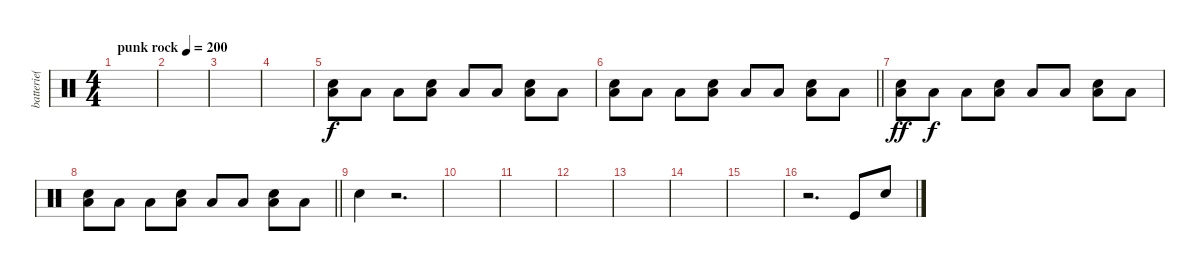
\track ("batterie( Guillaume ) " "batterie( ") {instrument percussion}
\staff {score}
\articulation defaults
\ts (4 4)
\tempo (200 "punk rock")
\clef neutral
\ks c
|
|
|
|
("Snare (hit) 2" "Low Floor Tom (hit)").8 "Low Floor Tom (hit)".8{dy f} "Low Floor Tom (hit)".8 ("Snare (hit) 2" "Low Floor Tom (hit)").8 "Low Floor Tom (hit)".8 "Low Floor Tom (hit)".8 ("Snare (hit) 2" "Low Floor Tom (hit)").8 "Low Floor Tom (hit)".8 |
\barLineRight lightlight
("Snare (hit) 2" "Low Floor Tom (hit)").8 "Low Floor Tom (hit)".8 "Low Floor Tom (hit)".8 ("Snare (hit) 2" "Low Floor Tom (hit)").8 "Low Floor Tom (hit)".8 "Low Floor Tom (hit)".8 ("Snare (hit) 2" "Low Floor Tom (hit)").8 "Low Floor Tom (hit)".8 |
("Snare (hit) 2" "Low Floor Tom (hit)").8{dy ff} "Low Floor Tom (hit)".8{dy f} "Low Floor Tom (hit)".8 ("Snare (hit) 2" "Low Floor Tom (hit)").8 "Low Floor Tom (hit)".8 "Low Floor Tom (hit)".8 ("Snare (hit) 2" "Low Floor Tom (hit)").8 "Low Floor Tom (hit)".8 |
\barLineRight lightlight
("Snare (hit) 2" "Low Floor Tom (hit)").8 "Low Floor Tom (hit)".8 "Low Floor Tom (hit)".8 ("Snare (hit) 2" "Low Floor Tom (hit)").8 "Low Floor Tom (hit)".8 "Low Floor Tom (hit)".8 ("Snare (hit) 2" "Low Floor Tom (hit)").8 "Low Floor Tom (hit)".8 |
"Snare (hit) 2".4 r.2{d} |
|
|
|
|
|
|
r.2{d} "Kick (hit)".8 "Snare (hit) 2".8
